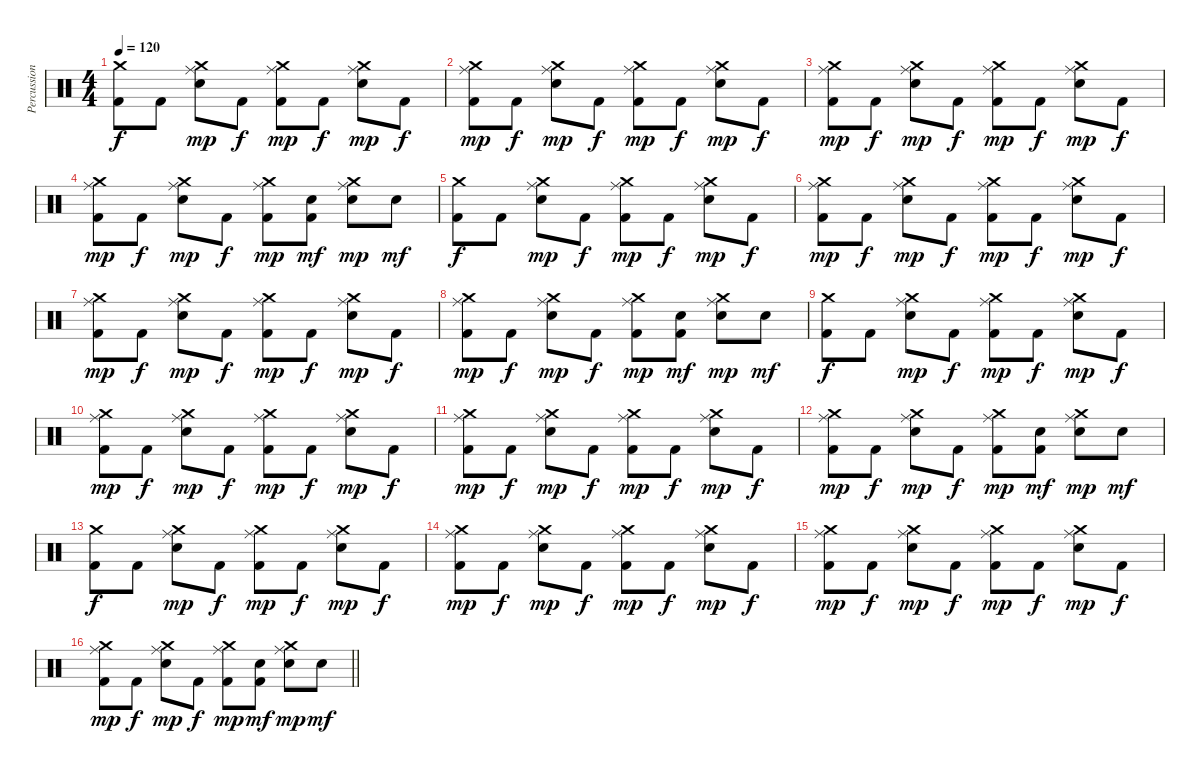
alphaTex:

\track ("Percussion" "Percussion") {instrument percussion}
\staff {score}
\articulation defaults
\ts (4 4)
\tempo 120
\clef neutral
\ks c
("Crash medium (hit)" "Kick (hit) 2").8{dy f} "Kick (hit) 2".8 ("Ride (middle)" "Crash medium (hit)" "Electric Snare (hit)").8{dy mp} "Kick (hit) 2".8{dy f} ("Ride (middle)" "Crash medium (hit)" "Kick (hit) 2").8{dy mp} "Kick (hit) 2".8{dy f} ("Ride (middle)" "Crash medium (hit)" "Electric Snare (hit)").8{dy mp} "Kick (hit) 2".8{dy f} |
("Ride (middle)" "Crash medium (hit)" "Kick (hit) 2").8{dy mp} "Kick (hit) 2".8{dy f} ("Ride (middle)" "Crash medium (hit)" "Electric Snare (hit)").8{dy mp} "Kick (hit) 2".8{dy f} ("Ride (middle)" "Crash medium (hit)" "Kick (hit) 2").8{dy mp} "Kick (hit) 2".8{dy f} ("Ride (middle)" "Crash medium (hit)" "Electric Snare (hit)").8{dy mp} "Kick (hit) 2".8{dy f} |
("Ride (middle)" "Crash medium (hit)" "Kick (hit) 2").8{dy mp} "Kick (hit) 2".8{dy f} ("Ride (middle)" "Crash medium (hit)" "Electric Snare (hit)").8{dy mp} "Kick (hit) 2".8{dy f} ("Ride (middle)" "Crash medium (hit)" "Kick (hit) 2").8{dy mp} "Kick (hit) 2".8{dy f} ("Ride (middle)" "Crash medium (hit)" "Electric Snare (hit)").8{dy mp} "Kick (hit) 2".8{dy f} |
("Ride (middle)" "Crash medium (hit)" "Kick (hit) 2").8{dy mp} "Kick (hit) 2".8{dy f} ("Ride (middle)" "Crash medium (hit)" "Electric Snare (hit)").8{dy mp} "Kick (hit) 2".8{dy f} ("Ride (middle)" "Crash medium (hit)" "Kick (hit) 2").8{dy mp} ("Electric Snare (hit)" "Kick (hit) 2").8{dy mf} ("Ride (middle)" "Crash medium (hit)" "Electric Snare (hit)").8{dy mp} "Electric Snare (hit)".8{dy mf} |
("Crash medium (hit)" "Kick (hit) 2").8{dy f} "Kick (hit) 2".8 ("Ride (middle)" "Crash medium (hit)" "Electric Snare (hit)").8{dy mp} "Kick (hit) 2".8{dy f} ("Ride (middle)" "Crash medium (hit)" "Kick (hit) 2").8{dy mp} "Kick (hit) 2".8{dy f} ("Ride (middle)" "Crash medium (hit)" "Electric Snare (hit)").8{dy mp} "Kick (hit) 2".8{dy f} |
("Ride (middle)" "Crash medium (hit)" "Kick (hit) 2").8{dy mp} "Kick (hit) 2".8{dy f} ("Ride (middle)" "Crash medium (hit)" "Electric Snare (hit)").8{dy mp} "Kick (hit) 2".8{dy f} ("Ride (middle)" "Crash medium (hit)" "Kick (hit) 2").8{dy mp} "Kick (hit) 2".8{dy f} ("Ride (middle)" "Crash medium (hit)" "Electric Snare (hit)").8{dy mp} "Kick (hit) 2".8{dy f} |
("Ride (middle)" "Crash medium (hit)" "Kick (hit) 2").8{dy mp} "Kick (hit) 2".8{dy f} ("Ride (middle)" "Crash medium (hit)" "Electric Snare (hit)").8{dy mp} "Kick (hit) 2".8{dy f} ("Ride (middle)" "Crash medium (hit)" "Kick (hit) 2").8{dy mp} "Kick (hit) 2".8{dy f} ("Ride (middle)" "Crash medium (hit)" "Electric Snare (hit)").8{dy mp} "Kick (hit) 2".8{dy f} |
("Ride (middle)" "Crash medium (hit)" "Kick (hit) 2").8{dy mp} "Kick (hit) 2".8{dy f} ("Ride (middle)" "Crash medium (hit)" "Electric Snare (hit)").8{dy mp} "Kick (hit) 2".8{dy f} ("Ride (middle)" "Crash medium (hit)" "Kick (hit) 2").8{dy mp} ("Electric Snare (hit)" "Kick (hit) 2").8{dy mf} ("Ride (middle)" "Crash medium (hit)" "Electric Snare (hit)").8{dy mp} "Electric Snare (hit)".8{dy mf} |
("Crash medium (hit)" "Kick (hit) 2").8{dy f} "Kick (hit) 2".8 ("Ride (middle)" "Crash medium (hit)" "Electric Snare (hit)").8{dy mp} "Kick (hit) 2".8{dy f} ("Ride (middle)" "Crash medium (hit)" "Kick (hit) 2").8{dy mp} "Kick (hit) 2".8{dy f} ("Ride (middle)" "Crash medium (hit)" "Electric Snare (hit)").8{dy mp} "Kick (hit) 2".8{dy f} |
("Ride (middle)" "Crash medium (hit)" "Kick (hit) 2").8{dy mp} "Kick (hit) 2".8{dy f} ("Ride (middle)" "Crash medium (hit)" "Electric Snare (hit)").8{dy mp} "Kick (hit) 2".8{dy f} ("Ride (middle)" "Crash medium (hit)" "Kick (hit) 2").8{dy mp} "Kick (hit) 2".8{dy f} ("Ride (middle)" "Crash medium (hit)" "Electric Snare (hit)").8{dy mp} "Kick (hit) 2".8{dy f} |
("Ride (middle)" "Crash medium (hit)" "Kick (hit) 2").8{dy mp} "Kick (hit) 2".8{dy f} ("Ride (middle)" "Crash medium (hit)" "Electric Snare (hit)").8{dy mp} "Kick (hit) 2".8{dy f} ("Ride (middle)" "Crash medium (hit)" "Kick (hit) 2").8{dy mp} "Kick (hit) 2".8{dy f} ("Ride (middle)" "Crash medium (hit)" "Electric Snare (hit)").8{dy mp} "Kick (hit) 2".8{dy f} |
("Ride (middle)" "Crash medium (hit)" "Kick (hit) 2").8{dy mp} "Kick (hit) 2".8{dy f} ("Ride (middle)" "Crash medium (hit)" "Electric Snare (hit)").8{dy mp} "Kick (hit) 2".8{dy f} ("Ride (middle)" "Crash medium (hit)" "Kick (hit) 2").8{dy mp} ("Electric Snare (hit)" "Kick (hit) 2").8{dy mf} ("Ride (middle)" "Crash medium (hit)" "Electric Snare (hit)").8{dy mp} "Electric Snare (hit)".8{dy mf} |
("Crash medium (hit)" "Kick (hit) 2").8{dy f} "Kick (hit) 2".8 ("Ride (middle)" "Crash medium (hit)" "Electric Snare (hit)").8{dy mp} "Kick (hit) 2".8{dy f} ("Ride (middle)" "Crash medium (hit)" "Kick (hit) 2").8{dy mp} "Kick (hit) 2".8{dy f} ("Ride (middle)" "Crash medium (hit)" "Electric Snare (hit)").8{dy mp} "Kick (hit) 2".8{dy f} |
("Ride (middle)" "Crash medium (hit)" "Kick (hit) 2").8{dy mp} "Kick (hit) 2".8{dy f} ("Ride (middle)" "Crash medium (hit)" "Electric Snare (hit)").8{dy mp} "Kick (hit) 2".8{dy f} ("Ride (middle)" "Crash medium (hit)" "Kick (hit) 2").8{dy mp} "Kick (hit) 2".8{dy f} ("Ride (middle)" "Crash medium (hit)" "Electric Snare (hit)").8{dy mp} "Kick (hit) 2".8{dy f} |
("Ride (middle)" "Crash medium (hit)" "Kick (hit) 2").8{dy mp} "Kick (hit) 2".8{dy f} ("Ride (middle)" "Crash medium (hit)" "Electric Snare (hit)").8{dy mp} "Kick (hit) 2".8{dy f} ("Ride (middle)" "Crash medium (hit)" "Kick (hit) 2").8{dy mp} "Kick (hit) 2".8{dy f} ("Ride (middle)" "Crash medium (hit)" "Electric Snare (hit)").8{dy mp} "Kick (hit) 2".8{dy f} |
\barLineRight lightlight
("Ride (middle)" "Crash medium (hit)" "Kick (hit) 2").8{dy mp} "Kick (hit) 2".8{dy f} ("Ride (middle)" "Crash medium (hit)" "Electric Snare (hit)").8{dy mp} "Kick (hit) 2".8{dy f} ("Ride (middle)" "Crash medium (hit)" "Kick (hit) 2").8{dy mp} ("Electric Snare (hit)" "Kick (hit) 2").8{dy mf} ("Ride (middle)" "Crash medium (hit)" "Electric Snare (hit)").8{dy mp} "Electric Snare (hit)".8{dy mf}
